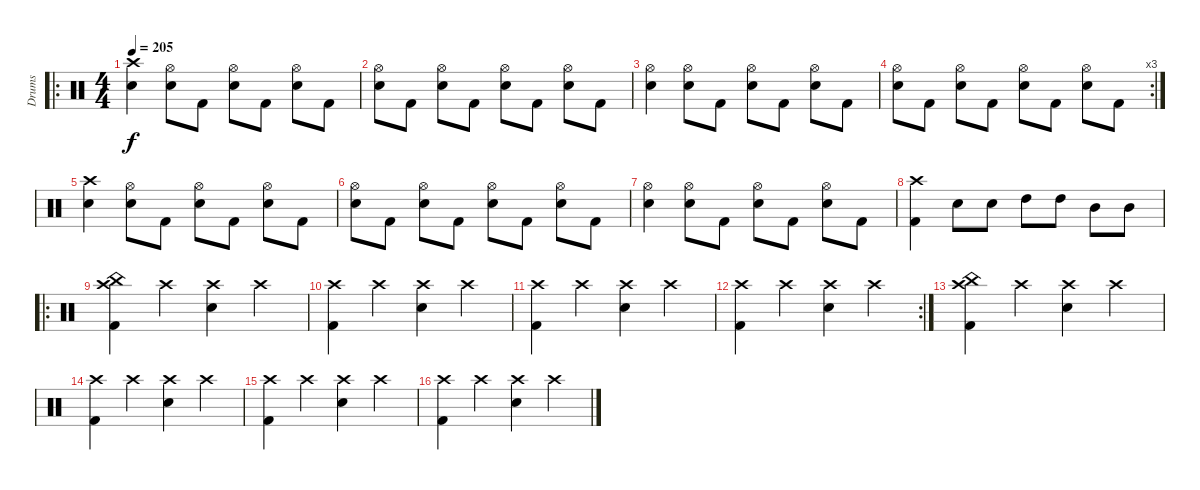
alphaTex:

\track ("Drums" "Drums") {instrument percussion}
\staff {score}
\articulation defaults
\ro
\ts (4 4)
\tempo 205
\clef neutral
\ks c
("Crash high (hit)" "Electric Snare (hit)").4{dy f} ("Hi-Hat (open)" "Electric Snare (hit)").8 "Kick (hit) 2".8 ("Hi-Hat (open)" "Electric Snare (hit)").8 "Kick (hit) 2".8 ("Hi-Hat (open)" "Electric Snare (hit)").8 "Kick (hit) 2".8 |
("Hi-Hat (open)" "Electric Snare (hit)").8 "Kick (hit) 2".8 ("Hi-Hat (open)" "Electric Snare (hit)").8 "Kick (hit) 2".8 ("Hi-Hat (open)" "Electric Snare (hit)").8 "Kick (hit) 2".8 ("Hi-Hat (open)" "Electric Snare (hit)").8 "Kick (hit) 2".8 |
("Hi-Hat (open)" "Electric Snare (hit)").4 ("Hi-Hat (open)" "Electric Snare (hit)").8 "Kick (hit) 2".8 ("Hi-Hat (open)" "Electric Snare (hit)").8 "Kick (hit) 2".8 ("Hi-Hat (open)" "Electric Snare (hit)").8 "Kick (hit) 2".8 |
\rc 3
("Hi-Hat (open)" "Electric Snare (hit)").8 "Kick (hit) 2".8 ("Hi-Hat (open)" "Electric Snare (hit)").8 "Kick (hit) 2".8 ("Hi-Hat (open)" "Electric Snare (hit)").8 "Kick (hit) 2".8 ("Hi-Hat (open)" "Electric Snare (hit)").8 "Kick (hit) 2".8 |
("Crash high (hit)" "Electric Snare (hit)").4 ("Hi-Hat (open)" "Electric Snare (hit)").8 "Kick (hit) 2".8 ("Hi-Hat (open)" "Electric Snare (hit)").8 "Kick (hit) 2".8 ("Hi-Hat (open)" "Electric Snare (hit)").8 "Kick (hit) 2".8 |
("Hi-Hat (open)" "Electric Snare (hit)").8 "Kick (hit) 2".8 ("Hi-Hat (open)" "Electric Snare (hit)").8 "Kick (hit) 2".8 ("Hi-Hat (open)" "Electric Snare (hit)").8 "Kick (hit) 2".8 ("Hi-Hat (open)" "Electric Snare (hit)").8 "Kick (hit) 2".8 |
("Hi-Hat (open)" "Electric Snare (hit)").4 ("Hi-Hat (open)" "Electric Snare (hit)").8 "Kick (hit) 2".8 ("Hi-Hat (open)" "Electric Snare (hit)").8 "Kick (hit) 2".8 ("Hi-Hat (open)" "Electric Snare (hit)").8 "Kick (hit) 2".8 |
("Crash high (hit)" "Kick (hit) 2").4 "Electric Snare (hit)".8 "Electric Snare (hit)".8 "High Tom (hit)".8 "High Tom (hit)".8 "Mid Tom (hit)".8 "Mid Tom (hit)".8 |
\ro
("China (hit)" "Crash high (hit)" "Kick (hit) 2").4 "Crash high (hit)".4 ("Crash high (hit)" "Electric Snare (hit)").4 "Crash high (hit)".4 |
("Crash high (hit)" "Kick (hit) 2").4 "Crash high (hit)".4 ("Crash high (hit)" "Electric Snare (hit)").4 "Crash high (hit)".4 |
("Crash high (hit)" "Kick (hit) 2").4 "Crash high (hit)".4 ("Crash high (hit)" "Electric Snare (hit)").4 "Crash high (hit)".4 |
\rc 2
("Crash high (hit)" "Kick (hit) 2").4 "Crash high (hit)".4 ("Crash high (hit)" "Electric Snare (hit)").4 "Crash high (hit)".4 |
("China (hit)" "Crash high (hit)" "Kick (hit) 2").4 "Crash high (hit)".4 ("Crash high (hit)" "Electric Snare (hit)").4 "Crash high (hit)".4 |
("Crash high (hit)" "Kick (hit) 2").4 "Crash high (hit)".4 ("Crash high (hit)" "Electric Snare (hit)").4 "Crash high (hit)".4 |
("Crash high (hit)" "Kick (hit) 2").4 "Crash high (hit)".4 ("Crash high (hit)" "Electric Snare (hit)").4 "Crash high (hit)".4 |
("Crash high (hit)" "Kick (hit) 2").4 "Crash high (hit)".4 ("Crash high (hit)" "Electric Snare (hit)").4 "Crash high (hit)".4
